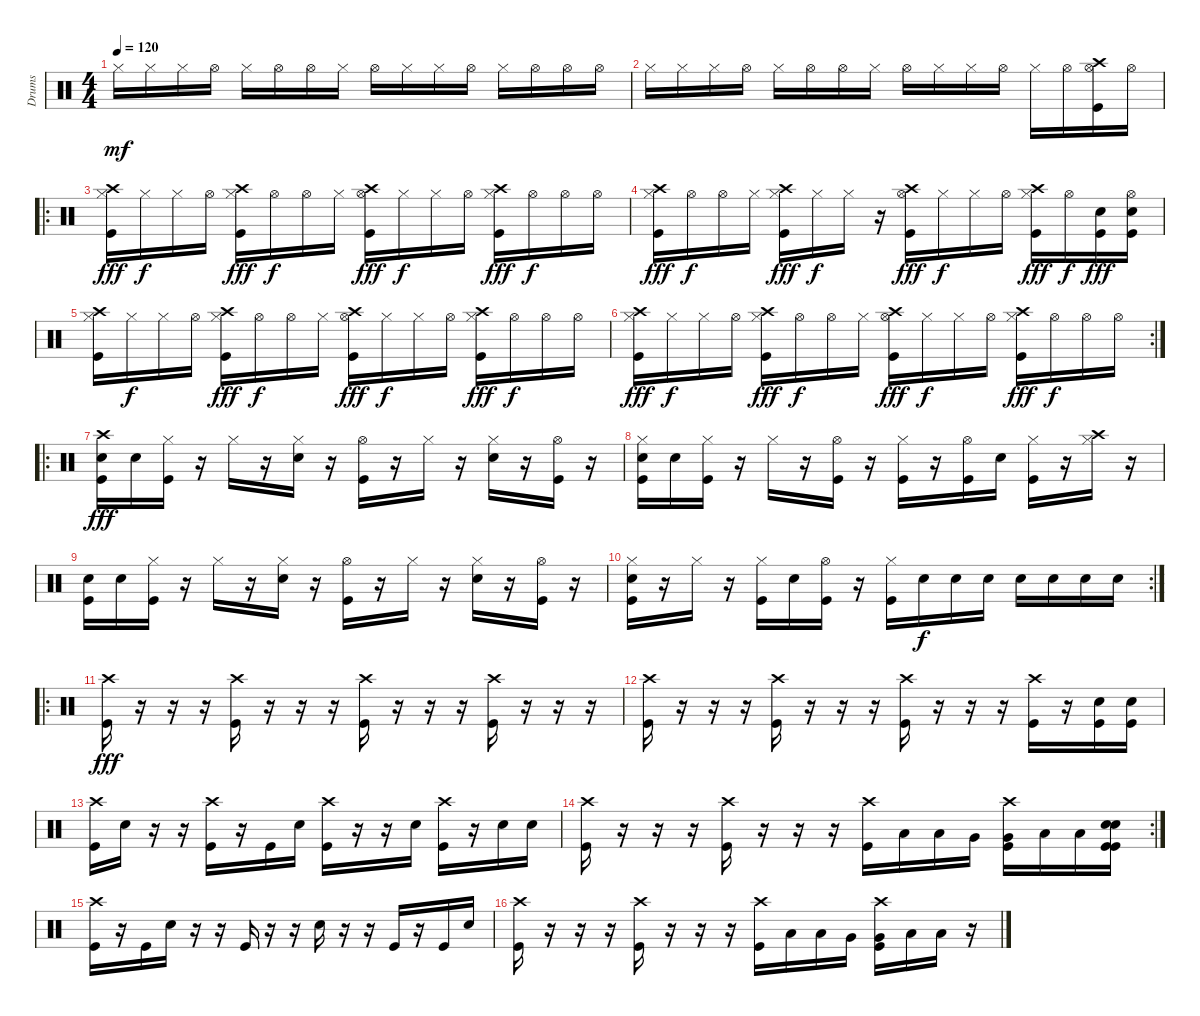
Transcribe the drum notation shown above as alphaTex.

\track ("Drums" "Drums") {instrument percussion}
\staff {score}
\articulation defaults
\ts (4 4)
\tempo 120
\clef neutral
\ks c "Hi-Hat (closed)".16{dy mf} "Hi-Hat (closed)".16 "Hi-Hat (closed)".16 "Hi-Hat (open)".16 "Hi-Hat (closed)".16 "Hi-Hat (open)".16 "Hi-Hat (open)".16 "Hi-Hat (closed)".16 "Hi-Hat (open)".16 "Hi-Hat (closed)".16 "Hi-Hat (closed)".16 "Hi-Hat (open)".16 "Hi-Hat (closed)".16 "Hi-Hat (open)".16 "Hi-Hat (open)".16 "Hi-Hat (open)".16
|
"Hi-Hat (closed)".16 "Hi-Hat (closed)".16 "Hi-Hat (closed)".16 "Hi-Hat (open)".16 "Hi-Hat (closed)".16 "Hi-Hat (open)".16 "Hi-Hat (open)".16 "Hi-Hat (closed)".16 "Hi-Hat (open)".16 "Hi-Hat (closed)".16 "Hi-Hat (closed)".16 "Hi-Hat (open)".16 "Hi-Hat (closed)".16 "Hi-Hat (open)".16 ("Crash high (hit)" "Hi-Hat (open)" "Kick (hit)").16 "Hi-Hat (open)".16 |
\ro
("Crash high (hit)" "Hi-Hat (closed)" "Kick (hit)").16{dy fff} "Hi-Hat (closed)".16{dy f} "Hi-Hat (closed)".16 "Hi-Hat (open)".16 ("Crash high (hit)" "Hi-Hat (closed)" "Kick (hit)").16{dy fff} "Hi-Hat (open)".16{dy f} "Hi-Hat (open)".16 "Hi-Hat (closed)".16 ("Crash high (hit)" "Hi-Hat (open)" "Kick (hit)").16{dy fff} "Hi-Hat (closed)".16{dy f} "Hi-Hat (closed)".16 "Hi-Hat (open)".16 ("Crash high (hit)" "Hi-Hat (closed)" "Kick (hit)").16{dy fff} "Hi-Hat (open)".16{dy f} "Hi-Hat (open)".16 "Hi-Hat (open)".16 |
("Crash high (hit)" "Hi-Hat (closed)" "Kick (hit)").16{dy fff} "Hi-Hat (open)".16{dy f} "Hi-Hat (open)".16 "Hi-Hat (closed)".16 ("Crash high (hit)" "Hi-Hat (closed)" "Kick (hit)").16{dy fff} "Hi-Hat (closed)".16{dy f} "Hi-Hat (closed)".16 r.16 ("Crash high (hit)" "Hi-Hat (open)" "Kick (hit)").16{dy fff} "Hi-Hat (closed)".16{dy f} "Hi-Hat (closed)".16 "Hi-Hat (open)".16 ("Crash high (hit)" "Hi-Hat (closed)" "Kick (hit)").16{dy fff} "Hi-Hat (open)".16{dy f} ("Electric Snare (hit)" "Kick (hit)").16{dy fff} ("Hi-Hat (open)" "Electric Snare (hit)" "Kick (hit)").16 |
("Crash high (hit)" "Hi-Hat (closed)" "Kick (hit)").16 "Hi-Hat (closed)".16{dy f} "Hi-Hat (closed)".16 "Hi-Hat (open)".16 ("Crash high (hit)" "Hi-Hat (closed)" "Kick (hit)").16{dy fff} "Hi-Hat (open)".16{dy f} "Hi-Hat (open)".16 "Hi-Hat (closed)".16 ("Crash high (hit)" "Hi-Hat (open)" "Kick (hit)").16{dy fff} "Hi-Hat (closed)".16{dy f} "Hi-Hat (closed)".16 "Hi-Hat (open)".16 ("Crash high (hit)" "Hi-Hat (closed)" "Kick (hit)").16{dy fff} "Hi-Hat (open)".16{dy f} "Hi-Hat (open)".16 "Hi-Hat (open)".16 |
\rc 2
("Crash high (hit)" "Hi-Hat (closed)" "Kick (hit)").16{dy fff} "Hi-Hat (closed)".16{dy f} "Hi-Hat (closed)".16 "Hi-Hat (open)".16 ("Crash high (hit)" "Hi-Hat (closed)" "Kick (hit)").16{dy fff} "Hi-Hat (open)".16{dy f} "Hi-Hat (open)".16 "Hi-Hat (closed)".16 ("Crash high (hit)" "Hi-Hat (open)" "Kick (hit)").16{dy fff} "Hi-Hat (closed)".16{dy f} "Hi-Hat (closed)".16 "Hi-Hat (open)".16 ("Crash high (hit)" "Hi-Hat (closed)" "Kick (hit)").16{dy fff} "Hi-Hat (open)".16{dy f} "Hi-Hat (open)".16 "Hi-Hat (open)".16 |
\ro
("Crash high (hit)" "Electric Snare (hit)" "Kick (hit)").16{dy fff} "Electric Snare (hit)".16 ("Hi-Hat (closed)" "Kick (hit)").16 r.16 "Hi-Hat (closed)".16 r.16 ("Hi-Hat (closed)" "Electric Snare (hit)").16 r.16 ("Hi-Hat (open)" "Kick (hit)").16 r.16 "Hi-Hat (closed)".16 r.16 ("Hi-Hat (closed)" "Electric Snare (hit)").16 r.16 ("Hi-Hat (open)" "Kick (hit)").16 r.16 |
("Hi-Hat (closed)" "Electric Snare (hit)" "Kick (hit)").16 "Electric Snare (hit)".16 ("Hi-Hat (closed)" "Kick (hit)").16 r.16 "Hi-Hat (closed)".16 r.16 ("Hi-Hat (open)" "Kick (hit)").16 r.16 ("Hi-Hat (closed)" "Kick (hit)").16 r.16 ("Hi-Hat (open)" "Kick (hit)").16 "Electric Snare (hit)".16 ("Hi-Hat (closed)" "Kick (hit)").16 r.16 ("Crash high (hit)" "Hi-Hat (closed)").16 r.16 |
("Electric Snare (hit)" "Kick (hit)").16 "Electric Snare (hit)".16 ("Hi-Hat (closed)" "Kick (hit)").16 r.16 "Hi-Hat (closed)".16 r.16 ("Hi-Hat (closed)" "Electric Snare (hit)").16 r.16 ("Hi-Hat (open)" "Kick (hit)").16 r.16 "Hi-Hat (closed)".16 r.16 ("Hi-Hat (closed)" "Electric Snare (hit)").16 r.16 ("Hi-Hat (open)" "Kick (hit)").16 r.16 |
\rc 2
("Hi-Hat (closed)" "Electric Snare (hit)" "Kick (hit)").16 r.16 "Hi-Hat (closed)".16 r.16 ("Hi-Hat (closed)" "Kick (hit)").16 "Electric Snare (hit)".16 ("Hi-Hat (open)" "Kick (hit)").16 r.16 ("Hi-Hat (closed)" "Kick (hit)").16 "Electric Snare (hit)".16{dy f} "Electric Snare (hit)".16 "Electric Snare (hit)".16 "Electric Snare (hit)".16 "Electric Snare (hit)".16 "Electric Snare (hit)".16 "Electric Snare (hit)".16 |
\ro
("Crash high (hit)" "Kick (hit)").16{dy fff} r.16 r.16 r.16 ("Crash high (hit)" "Kick (hit)").16 r.16 r.16 r.16 ("Crash high (hit)" "Kick (hit)").16 r.16 r.16 r.16 ("Crash high (hit)" "Kick (hit)").16 r.16 r.16 r.16 |
("Crash high (hit)" "Kick (hit)").16 r.16 r.16 r.16 ("Crash high (hit)" "Kick (hit)").16 r.16 r.16 r.16 ("Crash high (hit)" "Kick (hit)").16 r.16 r.16 r.16 ("Crash high (hit)" "Kick (hit)").16 r.16 ("Electric Snare (hit)" "Kick (hit)").16 ("Electric Snare (hit)" "Kick (hit)").16 |
("Crash high (hit)" "Kick (hit)").16 "Electric Snare (hit)".16 r.16 r.16 ("Crash high (hit)" "Kick (hit)").16 r.16 "Kick (hit)".16 "Electric Snare (hit)".16 ("Crash high (hit)" "Kick (hit)").16 r.16 r.16 "Electric Snare (hit)".16 ("Crash high (hit)" "Kick (hit)").16 r.16 "Electric Snare (hit)".16 "Electric Snare (hit)".16 |
\rc 2
("Crash high (hit)" "Kick (hit)").16 r.16 r.16 r.16 ("Crash high (hit)" "Kick (hit)").16 r.16 r.16 r.16 ("Crash high (hit)" "Kick (hit)").16 "Low Tom (hit)".16{balance 0} "Low Tom (hit)".16{balance 16} "Very Low Tom (hit)".16{balance 0} ("Crash high (hit)" "Very Low Tom (hit)" "Kick (hit)").16{balance 16} "Low Floor Tom (hit)".16{balance 0} "Low Floor Tom (hit)".16{balance 16} ("Electric Snare (hit)" "Electric Snare (hit)" "Kick (hit)" "Kick (hit)").16{balance 8} |
("Crash high (hit)" "Kick (hit)").16 r.16 "Kick (hit)".16 "Electric Snare (hit)".16 r.16 r.16 "Kick (hit)".16 r.16 r.16 "Electric Snare (hit)".16 r.16 r.16 "Kick (hit)".16 r.16 "Kick (hit)".16 "Electric Snare (hit)".16 |
("Crash high (hit)" "Kick (hit)").16 r.16 r.16 r.16 ("Crash high (hit)" "Kick (hit)").16 r.16 r.16 r.16 ("Crash high (hit)" "Kick (hit)").16 "Low Tom (hit)".16{balance 0} "Low Tom (hit)".16{balance 16} "Very Low Tom (hit)".16{balance 0} ("Crash high (hit)" "Very Low Tom (hit)" "Kick (hit)").16{balance 16} "Low Floor Tom (hit)".16{balance 0} "Low Floor Tom (hit)".16{balance 16} r.16{balance 8}
